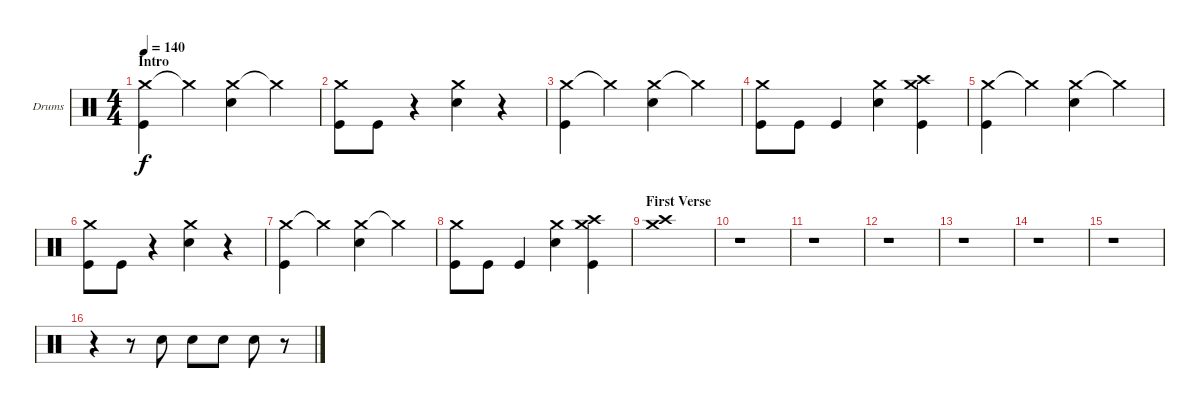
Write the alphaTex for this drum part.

\bracketExtendMode groupsimilarinstruments
\firstSystemTrackNameOrientation horizontal
\otherSystemsTrackNameOrientation horizontal
\track ("Drumkit" "Drums") {instrument percussion}
\staff {score}
\articulation defaults
\ts (4 4)
\section ("" "Intro")
\tempo 140
\clef neutral
\ks c
("Crash medium (hit)" "Kick (hit)").4{dy f} "Crash medium (hit)"{t}.4 ("Crash medium (hit)" "Snare (hit) 2").4 "Crash medium (hit)"{t}.4 |
("Crash medium (hit)" "Kick (hit)").8 "Kick (hit)".8 r.4 ("Crash medium (hit)" "Snare (hit) 2").4 r.4 |
("Crash medium (hit)" "Kick (hit)").4 "Crash medium (hit)"{t}.4 ("Crash medium (hit)" "Snare (hit) 2").4 "Crash medium (hit)"{t}.4 |
("Crash medium (hit)" "Kick (hit)").8 "Kick (hit)".8 "Kick (hit)".4 ("Crash medium (hit)" "Snare (hit) 2").4 ("Crash high (hit)" "Crash medium (hit)" "Kick (hit)").4 |
("Crash medium (hit)" "Kick (hit)").4 "Crash medium (hit)"{t}.4 ("Crash medium (hit)" "Snare (hit) 2").4 "Crash medium (hit)"{t}.4 |
("Crash medium (hit)" "Kick (hit)").8 "Kick (hit)".8 r.4 ("Crash medium (hit)" "Snare (hit) 2").4 r.4 |
("Crash medium (hit)" "Kick (hit)").4 "Crash medium (hit)"{t}.4 ("Crash medium (hit)" "Snare (hit) 2").4 "Crash medium (hit)"{t}.4 |
("Crash medium (hit)" "Kick (hit)").8 "Kick (hit)".8 "Kick (hit)".4 ("Crash medium (hit)" "Snare (hit) 2").4 ("Crash high (hit)" "Crash medium (hit)" "Kick (hit)").4 |
\section ("" "First Verse")
("Crash high (hit)" "Crash medium (hit)").1 |
r.1 |
r.1 |
r.1 |
r.1 |
r.1 |
r.1 |
r.4 r.8 "Snare (hit) 2".8 "Snare (hit) 2".8 "Snare (hit) 2".8 "Snare (hit) 2".8 r.8
